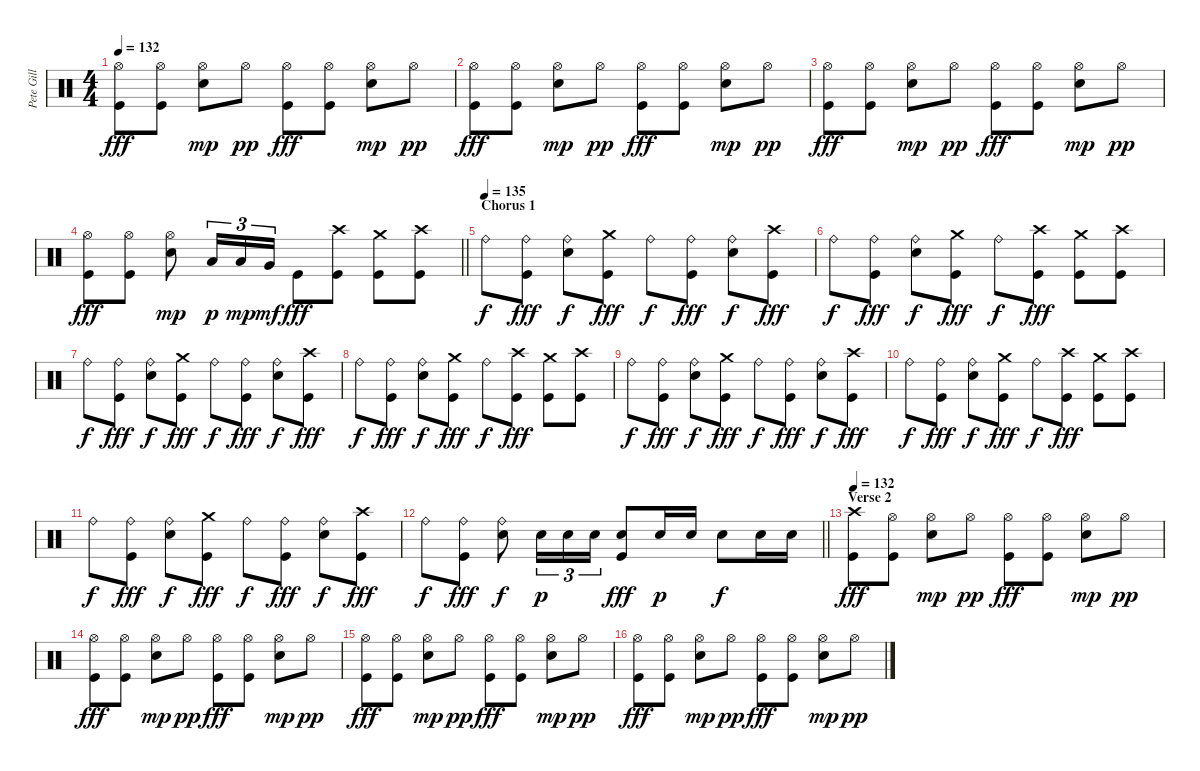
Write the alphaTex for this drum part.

\track ("Pete Gill" "Pete Gill") {instrument percussion}
\staff {score}
\articulation defaults
\ts (4 4)
\tempo 132
\clef neutral
\ks c
("Hi-Hat (open)" "Kick (hit)").8{dy fff} ("Hi-Hat (open)" "Kick (hit)").8 ("Hi-Hat (open)" "Electric Snare (hit)").8{dy mp} "Hi-Hat (open)".8{dy pp} ("Hi-Hat (open)" "Kick (hit)").8{dy fff} ("Hi-Hat (open)" "Kick (hit)").8 ("Hi-Hat (open)" "Electric Snare (hit)").8{dy mp} "Hi-Hat (open)".8{dy pp} |
("Hi-Hat (open)" "Kick (hit)").8{dy fff} ("Hi-Hat (open)" "Kick (hit)").8 ("Hi-Hat (open)" "Electric Snare (hit)").8{dy mp} "Hi-Hat (open)".8{dy pp} ("Hi-Hat (open)" "Kick (hit)").8{dy fff} ("Hi-Hat (open)" "Kick (hit)").8 ("Hi-Hat (open)" "Electric Snare (hit)").8{dy mp} "Hi-Hat (open)".8{dy pp} |
("Hi-Hat (open)" "Kick (hit)").8{dy fff} ("Hi-Hat (open)" "Kick (hit)").8 ("Hi-Hat (open)" "Electric Snare (hit)").8{dy mp} "Hi-Hat (open)".8{dy pp} ("Hi-Hat (open)" "Kick (hit)").8{dy fff} ("Hi-Hat (open)" "Kick (hit)").8 ("Hi-Hat (open)" "Electric Snare (hit)").8{dy mp} "Hi-Hat (open)".8{dy pp} |
\barLineRight lightlight
("Hi-Hat (open)" "Kick (hit)").8{dy fff} ("Hi-Hat (open)" "Kick (hit)").8 ("Hi-Hat (open)" "Electric Snare (hit)").8{dy mp} "Low Tom (hit)".16{tu (3 2) dy p} "Low Tom (hit)".16{tu (3 2) dy mp} "Very Low Tom (hit)".16{tu (3 2) dy mf} "Kick (hit)".8{dy fff} ("Crash high (hit)" "Kick (hit)").8 ("Crash medium (hit)" "Kick (hit)").8 ("Crash high (hit)" "Kick (hit)").8 |
\section ("" "Chorus 1")
\tempo (135)
"Ride (bell)".8{dy f} ("Ride (bell)" "Kick (hit)").8{dy fff} ("Ride (bell)" "Electric Snare (hit)").8{dy f} ("Crash medium (hit)" "Kick (hit)").8{dy fff} "Ride (bell)".8{dy f} ("Ride (bell)" "Kick (hit)").8{dy fff} ("Ride (bell)" "Electric Snare (hit)").8{dy f} ("Crash high (hit)" "Kick (hit)").8{dy fff} |
"Ride (bell)".8{dy f} ("Ride (bell)" "Kick (hit)").8{dy fff} ("Ride (bell)" "Electric Snare (hit)").8{dy f} ("Crash medium (hit)" "Kick (hit)").8{dy fff} "Ride (bell)".8{dy f} ("Crash high (hit)" "Kick (hit)").8{dy fff} ("Crash medium (hit)" "Kick (hit)").8 ("Crash high (hit)" "Kick (hit)").8 |
"Ride (bell)".8{dy f} ("Ride (bell)" "Kick (hit)").8{dy fff} ("Ride (bell)" "Electric Snare (hit)").8{dy f} ("Crash medium (hit)" "Kick (hit)").8{dy fff} "Ride (bell)".8{dy f} ("Ride (bell)" "Kick (hit)").8{dy fff} ("Ride (bell)" "Electric Snare (hit)").8{dy f} ("Crash high (hit)" "Kick (hit)").8{dy fff} |
"Ride (bell)".8{dy f} ("Ride (bell)" "Kick (hit)").8{dy fff} ("Ride (bell)" "Electric Snare (hit)").8{dy f} ("Crash medium (hit)" "Kick (hit)").8{dy fff} "Ride (bell)".8{dy f} ("Crash high (hit)" "Kick (hit)").8{dy fff} ("Crash medium (hit)" "Kick (hit)").8 ("Crash high (hit)" "Kick (hit)").8 |
"Ride (bell)".8{dy f} ("Ride (bell)" "Kick (hit)").8{dy fff} ("Ride (bell)" "Electric Snare (hit)").8{dy f} ("Crash medium (hit)" "Kick (hit)").8{dy fff} "Ride (bell)".8{dy f} ("Ride (bell)" "Kick (hit)").8{dy fff} ("Ride (bell)" "Electric Snare (hit)").8{dy f} ("Crash high (hit)" "Kick (hit)").8{dy fff} |
"Ride (bell)".8{dy f} ("Ride (bell)" "Kick (hit)").8{dy fff} ("Ride (bell)" "Electric Snare (hit)").8{dy f} ("Crash medium (hit)" "Kick (hit)").8{dy fff} "Ride (bell)".8{dy f} ("Crash high (hit)" "Kick (hit)").8{dy fff} ("Crash medium (hit)" "Kick (hit)").8 ("Crash high (hit)" "Kick (hit)").8 |
"Ride (bell)".8{dy f} ("Ride (bell)" "Kick (hit)").8{dy fff} ("Ride (bell)" "Electric Snare (hit)").8{dy f} ("Crash medium (hit)" "Kick (hit)").8{dy fff} "Ride (bell)".8{dy f} ("Ride (bell)" "Kick (hit)").8{dy fff} ("Ride (bell)" "Electric Snare (hit)").8{dy f} ("Crash high (hit)" "Kick (hit)").8{dy fff} |
\barLineRight lightlight "Ride (bell)".8{dy f}
("Ride (bell)" "Kick (hit)").8{dy fff} ("Ride (bell)" "Electric Snare (hit)").8{dy f} "Electric Snare (hit)".16{tu (3 2) dy p} "Electric Snare (hit)".16{tu (3 2)} "Electric Snare (hit)".16{tu (3 2)} ("Electric Snare (hit)" "Kick (hit)").8{dy fff} "Electric Snare (hit)".16{dy p} "Electric Snare (hit)".16 "Electric Snare (hit)".8{dy f} "Electric Snare (hit)".16 "Electric Snare (hit)".16 |
\section ("" "Verse 2")
\tempo 132
("Crash high (hit)" "Kick (hit)").8{dy fff} ("Hi-Hat (open)" "Kick (hit)").8 ("Hi-Hat (open)" "Electric Snare (hit)").8{dy mp} "Hi-Hat (open)".8{dy pp} ("Hi-Hat (open)" "Kick (hit)").8{dy fff} ("Hi-Hat (open)" "Kick (hit)").8 ("Hi-Hat (open)" "Electric Snare (hit)").8{dy mp} "Hi-Hat (open)".8{dy pp} |
("Hi-Hat (open)" "Kick (hit)").8{dy fff} ("Hi-Hat (open)" "Kick (hit)").8 ("Hi-Hat (open)" "Electric Snare (hit)").8{dy mp} "Hi-Hat (open)".8{dy pp} ("Hi-Hat (open)" "Kick (hit)").8{dy fff} ("Hi-Hat (open)" "Kick (hit)").8 ("Hi-Hat (open)" "Electric Snare (hit)").8{dy mp} "Hi-Hat (open)".8{dy pp} |
("Hi-Hat (open)" "Kick (hit)").8{dy fff} ("Hi-Hat (open)" "Kick (hit)").8 ("Hi-Hat (open)" "Electric Snare (hit)").8{dy mp} "Hi-Hat (open)".8{dy pp} ("Hi-Hat (open)" "Kick (hit)").8{dy fff} ("Hi-Hat (open)" "Kick (hit)").8 ("Hi-Hat (open)" "Electric Snare (hit)").8{dy mp} "Hi-Hat (open)".8{dy pp} |
("Hi-Hat (open)" "Kick (hit)").8{dy fff} ("Hi-Hat (open)" "Kick (hit)").8 ("Hi-Hat (open)" "Electric Snare (hit)").8{dy mp} "Hi-Hat (open)".8{dy pp} ("Hi-Hat (open)" "Kick (hit)").8{dy fff} ("Hi-Hat (open)" "Kick (hit)").8 ("Hi-Hat (open)" "Electric Snare (hit)").8{dy mp} "Hi-Hat (open)".8{dy pp}
